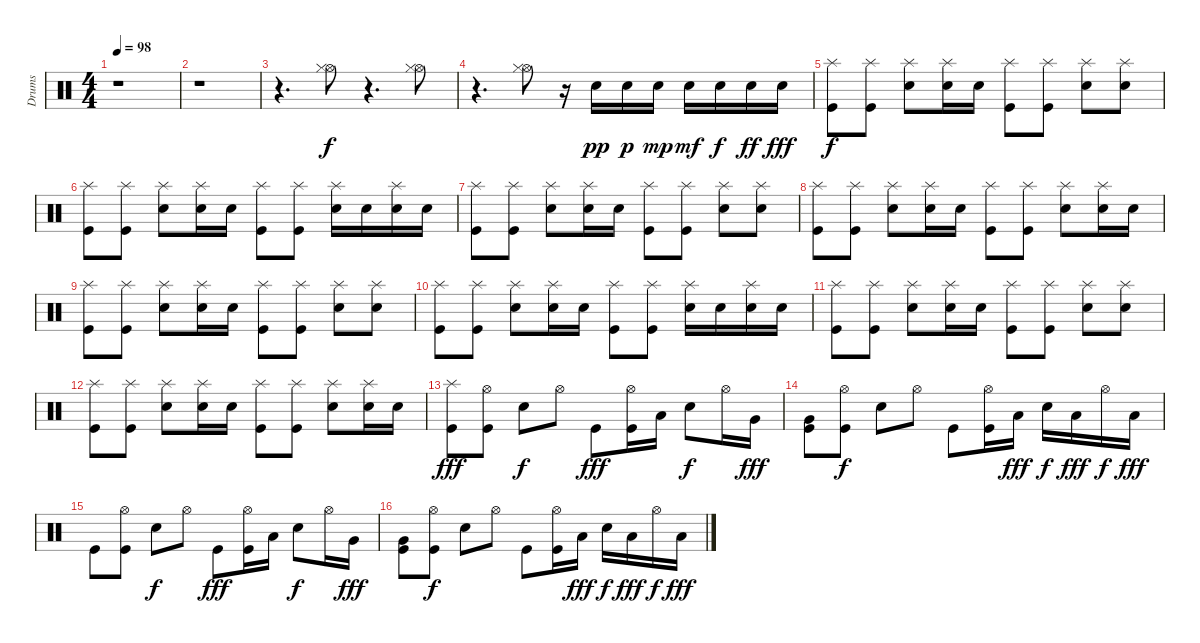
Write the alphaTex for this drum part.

\track ("Drums" "Drums") {instrument percussion}
\staff {score}
\articulation defaults
\ts (4 4)
\tempo 98
\clef neutral
\ks c
r.1{dy f} |
r.1 |
r.4{d} ("Hi-Hat (open)" "Hi-Hat (closed)").8 r.4{d} ("Hi-Hat (open)" "Hi-Hat (closed)").8 |
r.4{d} ("Hi-Hat (open)" "Hi-Hat (closed)").8 r.16 "Snare (hit) 2".16{dy pp} "Snare (hit) 2".16{dy p} "Snare (hit) 2".16{dy mp} "Snare (hit) 2".16{dy mf} "Snare (hit) 2".16{dy f} "Snare (hit) 2".16{dy ff} "Snare (hit) 2".16{dy fff} |
("Splash (hit)" "Kick (hit)").8{dy f} ("Splash (hit)" "Kick (hit)").8 ("Splash (hit)" "Snare (hit) 2").8 ("Splash (hit)" "Snare (hit) 2").16 "Snare (hit) 2".16 ("Splash (hit)" "Kick (hit)").8 ("Splash (hit)" "Kick (hit)").8 ("Splash (hit)" "Snare (hit) 2").8 ("Splash (hit)" "Snare (hit) 2").8 |
("Splash (hit)" "Kick (hit)").8 ("Splash (hit)" "Kick (hit)").8 ("Splash (hit)" "Snare (hit) 2").8 ("Splash (hit)" "Snare (hit) 2").16 "Snare (hit) 2".16 ("Splash (hit)" "Kick (hit)").8 ("Splash (hit)" "Kick (hit)").8 ("Splash (hit)" "Snare (hit) 2").16 "Snare (hit) 2".16 ("Splash (hit)" "Snare (hit) 2").16 "Snare (hit) 2".16 |
("Splash (hit)" "Kick (hit)").8 ("Splash (hit)" "Kick (hit)").8 ("Splash (hit)" "Snare (hit) 2").8 ("Splash (hit)" "Snare (hit) 2").16 "Snare (hit) 2".16 ("Splash (hit)" "Kick (hit)").8 ("Splash (hit)" "Kick (hit)").8 ("Splash (hit)" "Snare (hit) 2").8 ("Splash (hit)" "Snare (hit) 2").8 |
("Splash (hit)" "Kick (hit)").8 ("Splash (hit)" "Kick (hit)").8 ("Splash (hit)" "Snare (hit) 2").8 ("Splash (hit)" "Snare (hit) 2").16 "Snare (hit) 2".16 ("Splash (hit)" "Kick (hit)").8 ("Splash (hit)" "Kick (hit)").8 ("Splash (hit)" "Snare (hit) 2").8 ("Splash (hit)" "Snare (hit) 2").16 "Snare (hit) 2".16 |
("Splash (hit)" "Kick (hit)").8 ("Splash (hit)" "Kick (hit)").8 ("Splash (hit)" "Snare (hit) 2").8 ("Splash (hit)" "Snare (hit) 2").16 "Snare (hit) 2".16 ("Splash (hit)" "Kick (hit)").8 ("Splash (hit)" "Kick (hit)").8 ("Splash (hit)" "Snare (hit) 2").8 ("Splash (hit)" "Snare (hit) 2").8 |
("Splash (hit)" "Kick (hit)").8 ("Splash (hit)" "Kick (hit)").8 ("Splash (hit)" "Snare (hit) 2").8 ("Splash (hit)" "Snare (hit) 2").16 "Snare (hit) 2".16 ("Splash (hit)" "Kick (hit)").8 ("Splash (hit)" "Kick (hit)").8 ("Splash (hit)" "Snare (hit) 2").16 "Snare (hit) 2".16 ("Splash (hit)" "Snare (hit) 2").16 "Snare (hit) 2".16 |
("Splash (hit)" "Kick (hit)").8 ("Splash (hit)" "Kick (hit)").8 ("Splash (hit)" "Snare (hit) 2").8 ("Splash (hit)" "Snare (hit) 2").16 "Snare (hit) 2".16 ("Splash (hit)" "Kick (hit)").8 ("Splash (hit)" "Kick (hit)").8 ("Splash (hit)" "Snare (hit) 2").8 ("Splash (hit)" "Snare (hit) 2").8 |
("Splash (hit)" "Kick (hit)").8 ("Splash (hit)" "Kick (hit)").8 ("Splash (hit)" "Snare (hit) 2").8 ("Splash (hit)" "Snare (hit) 2").16 "Snare (hit) 2".16 ("Splash (hit)" "Kick (hit)").8 ("Splash (hit)" "Kick (hit)").8 ("Splash (hit)" "Snare (hit) 2").8 ("Splash (hit)" "Snare (hit) 2").16 "Snare (hit) 2".16 |
("Splash (hit)" "Kick (hit)").8{dy fff} ("Hi-Hat (open)" "Kick (hit)").8 "Snare (hit) 2".8{dy f} "Hi-Hat (open)".8 "Kick (hit)".8{dy fff} ("Hi-Hat (open)" "Kick (hit)").16 "Low Tom (hit)".16 "Snare (hit) 2".8{dy f} "Hi-Hat (open)".16 "Very Low Tom (hit)".16{dy fff} |
("Very Low Tom (hit)" "Kick (hit)").8 ("Hi-Hat (open)" "Kick (hit)").8{dy f} "Snare (hit) 2".8 "Hi-Hat (open)".8 "Kick (hit)".8 ("Hi-Hat (open)" "Kick (hit)").16 "Low Tom (hit)".16{dy fff} "Snare (hit) 2".16{dy f} "Low Tom (hit)".16{dy fff} "Hi-Hat (open)".16{dy f} "Low Tom (hit)".16{dy fff} |
"Kick (hit)".8 ("Hi-Hat (open)" "Kick (hit)").8 "Snare (hit) 2".8{dy f} "Hi-Hat (open)".8 "Kick (hit)".8{dy fff} ("Hi-Hat (open)" "Kick (hit)").16 "Low Tom (hit)".16 "Snare (hit) 2".8{dy f} "Hi-Hat (open)".16 "Very Low Tom (hit)".16{dy fff} |
("Very Low Tom (hit)" "Kick (hit)").8 ("Hi-Hat (open)" "Kick (hit)").8{dy f} "Snare (hit) 2".8 "Hi-Hat (open)".8 "Kick (hit)".8 ("Hi-Hat (open)" "Kick (hit)").16 "Low Tom (hit)".16{dy fff} "Snare (hit) 2".16{dy f} "Low Tom (hit)".16{dy fff} "Hi-Hat (open)".16{dy f} "Low Tom (hit)".16{dy fff}
